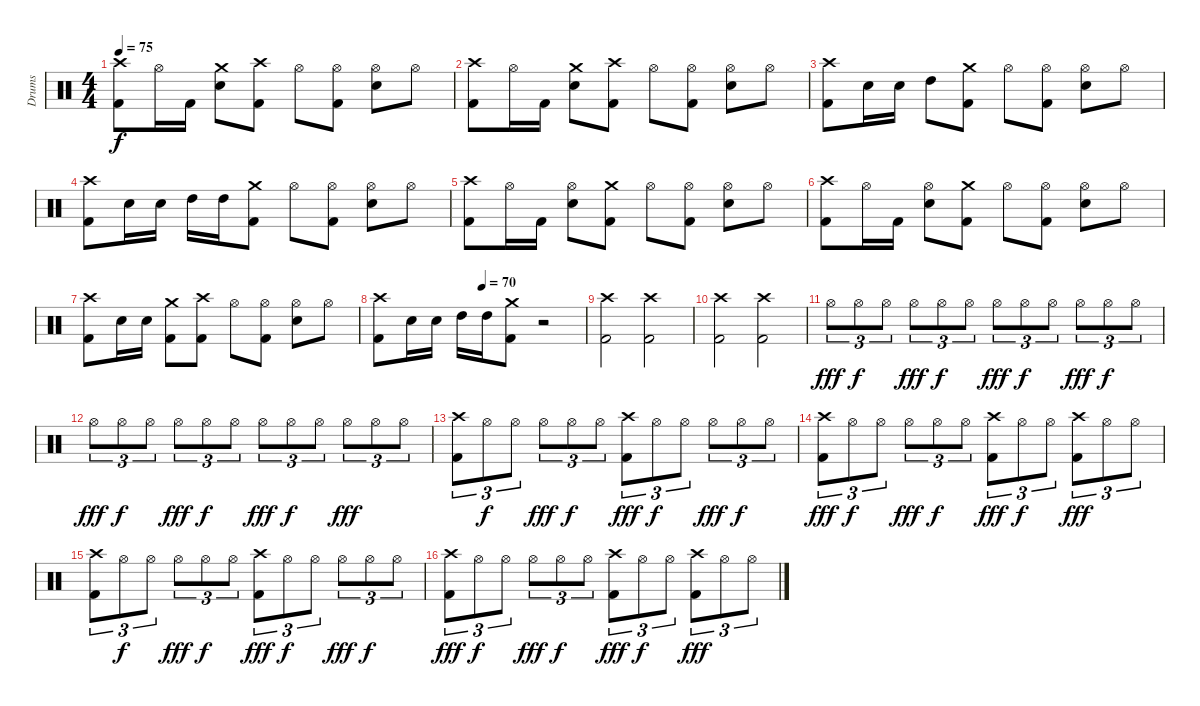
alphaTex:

\track ("Drums" "Drums") {instrument percussion}
\staff {score}
\articulation defaults
\ts (4 4)
\tempo 75
\clef neutral
\ks c
("Crash high (hit)" "Kick (hit) 2").8{dy f} "Hi-Hat (open)".16 "Kick (hit) 2".16 ("Crash medium (hit)" "Electric Snare (hit)").8 ("Crash high (hit)" "Kick (hit) 2").8 "Hi-Hat (open)".8 ("Hi-Hat (open)" "Kick (hit) 2").8 ("Hi-Hat (open)" "Electric Snare (hit)").8 "Hi-Hat (open)".8 |
("Crash high (hit)" "Kick (hit) 2").8 "Hi-Hat (open)".16 "Kick (hit) 2".16 ("Crash medium (hit)" "Electric Snare (hit)").8 ("Crash high (hit)" "Kick (hit) 2").8 "Hi-Hat (open)".8 ("Hi-Hat (open)" "Kick (hit) 2").8 ("Hi-Hat (open)" "Electric Snare (hit)").8 "Hi-Hat (open)".8 |
("Crash high (hit)" "Kick (hit) 2").8 "Electric Snare (hit)".16 "Electric Snare (hit)".16 "High Tom (hit)".8 ("Crash medium (hit)" "Kick (hit) 2").8 "Hi-Hat (open)".8 ("Hi-Hat (open)" "Kick (hit) 2").8 ("Hi-Hat (open)" "Electric Snare (hit)").8 "Hi-Hat (open)".8 |
("Crash high (hit)" "Kick (hit) 2").8 "Electric Snare (hit)".16 "Electric Snare (hit)".16 "High Tom (hit)".16 "High Tom (hit)".16 ("Crash medium (hit)" "Kick (hit) 2").8 "Hi-Hat (open)".8 ("Hi-Hat (open)" "Kick (hit) 2").8 ("Hi-Hat (open)" "Electric Snare (hit)").8 "Hi-Hat (open)".8 |
("Crash high (hit)" "Kick (hit) 2").8 "Hi-Hat (open)".16 "Kick (hit) 2".16 ("Hi-Hat (open)" "Electric Snare (hit)").8 ("Crash medium (hit)" "Kick (hit) 2").8 "Hi-Hat (open)".8 ("Hi-Hat (open)" "Kick (hit) 2").8 ("Hi-Hat (open)" "Electric Snare (hit)").8 "Hi-Hat (open)".8 |
("Crash high (hit)" "Kick (hit) 2").8 "Hi-Hat (open)".16 "Kick (hit) 2".16 ("Hi-Hat (open)" "Electric Snare (hit)").8 ("Crash medium (hit)" "Kick (hit) 2").8 "Hi-Hat (open)".8 ("Hi-Hat (open)" "Kick (hit) 2").8 ("Hi-Hat (open)" "Electric Snare (hit)").8 "Hi-Hat (open)".8 |
("Crash high (hit)" "Kick (hit) 2").8 "Electric Snare (hit)".16 "Electric Snare (hit)".16 ("Crash medium (hit)" "Kick (hit) 2").8 ("Crash high (hit)" "Kick (hit) 2").8 "Hi-Hat (open)".8 ("Hi-Hat (open)" "Kick (hit) 2").8 ("Hi-Hat (open)" "Electric Snare (hit)").8 "Hi-Hat (open)".8 |
\tempo (70 0.5)
("Crash high (hit)" "Kick (hit) 2").8 "Electric Snare (hit)".16 "Electric Snare (hit)".16 "High Tom (hit)".16 "High Tom (hit)".16 ("Crash medium (hit)" "Kick (hit) 2").8 r.2 |
("Crash high (hit)" "Kick (hit) 2").2 ("Crash high (hit)" "Kick (hit) 2").2 |
("Crash high (hit)" "Kick (hit) 2").2 ("Crash high (hit)" "Kick (hit) 2").2 |
"Hi-Hat (open)".8{tu (3 2) dy fff} "Hi-Hat (open)".8{tu (3 2) dy f} "Hi-Hat (open)".8{tu (3 2)} "Hi-Hat (open)".8{tu (3 2) dy fff} "Hi-Hat (open)".8{tu (3 2) dy f} "Hi-Hat (open)".8{tu (3 2)} "Hi-Hat (open)".8{tu (3 2) dy fff} "Hi-Hat (open)".8{tu (3 2) dy f} "Hi-Hat (open)".8{tu (3 2)} "Hi-Hat (open)".8{tu (3 2) dy fff} "Hi-Hat (open)".8{tu (3 2) dy f} "Hi-Hat (open)".8{tu (3 2)} |
"Hi-Hat (open)".8{tu (3 2) dy fff} "Hi-Hat (open)".8{tu (3 2) dy f} "Hi-Hat (open)".8{tu (3 2)} "Hi-Hat (open)".8{tu (3 2) dy fff} "Hi-Hat (open)".8{tu (3 2) dy f} "Hi-Hat (open)".8{tu (3 2)} "Hi-Hat (open)".8{tu (3 2) dy fff} "Hi-Hat (open)".8{tu (3 2) dy f} "Hi-Hat (open)".8{tu (3 2)} "Hi-Hat (open)".8{tu (3 2) dy fff} "Hi-Hat (open)".8{tu (3 2)} "Hi-Hat (open)".8{tu (3 2)} |
("Crash high (hit)" "Kick (hit) 2").8{tu (3 2)} "Hi-Hat (open)".8{tu (3 2) dy f} "Hi-Hat (open)".8{tu (3 2)} "Hi-Hat (open)".8{tu (3 2) dy fff} "Hi-Hat (open)".8{tu (3 2) dy f} "Hi-Hat (open)".8{tu (3 2)} ("Crash high (hit)" "Kick (hit) 2").8{tu (3 2) dy fff} "Hi-Hat (open)".8{tu (3 2) dy f} "Hi-Hat (open)".8{tu (3 2)} "Hi-Hat (open)".8{tu (3 2) dy fff} "Hi-Hat (open)".8{tu (3 2) dy f} "Hi-Hat (open)".8{tu (3 2)} |
("Crash high (hit)" "Kick (hit) 2").8{tu (3 2) dy fff} "Hi-Hat (open)".8{tu (3 2) dy f} "Hi-Hat (open)".8{tu (3 2)} "Hi-Hat (open)".8{tu (3 2) dy fff} "Hi-Hat (open)".8{tu (3 2) dy f} "Hi-Hat (open)".8{tu (3 2)} ("Crash high (hit)" "Kick (hit) 2").8{tu (3 2) dy fff} "Hi-Hat (open)".8{tu (3 2) dy f} "Hi-Hat (open)".8{tu (3 2)} ("Crash high (hit)" "Kick (hit) 2").8{tu (3 2) dy fff} "Hi-Hat (open)".8{tu (3 2)} "Hi-Hat (open)".8{tu (3 2)} |
("Crash high (hit)" "Kick (hit) 2").8{tu (3 2)} "Hi-Hat (open)".8{tu (3 2) dy f} "Hi-Hat (open)".8{tu (3 2)} "Hi-Hat (open)".8{tu (3 2) dy fff} "Hi-Hat (open)".8{tu (3 2) dy f} "Hi-Hat (open)".8{tu (3 2)} ("Crash high (hit)" "Kick (hit) 2").8{tu (3 2) dy fff} "Hi-Hat (open)".8{tu (3 2) dy f} "Hi-Hat (open)".8{tu (3 2)} "Hi-Hat (open)".8{tu (3 2) dy fff} "Hi-Hat (open)".8{tu (3 2) dy f} "Hi-Hat (open)".8{tu (3 2)} |
("Crash high (hit)" "Kick (hit) 2").8{tu (3 2) dy fff} "Hi-Hat (open)".8{tu (3 2) dy f} "Hi-Hat (open)".8{tu (3 2)} "Hi-Hat (open)".8{tu (3 2) dy fff} "Hi-Hat (open)".8{tu (3 2) dy f} "Hi-Hat (open)".8{tu (3 2)} ("Crash high (hit)" "Kick (hit) 2").8{tu (3 2) dy fff} "Hi-Hat (open)".8{tu (3 2) dy f} "Hi-Hat (open)".8{tu (3 2)} ("Crash high (hit)" "Kick (hit) 2").8{tu (3 2) dy fff} "Hi-Hat (open)".8{tu (3 2)} "Hi-Hat (open)".8{tu (3 2)}
